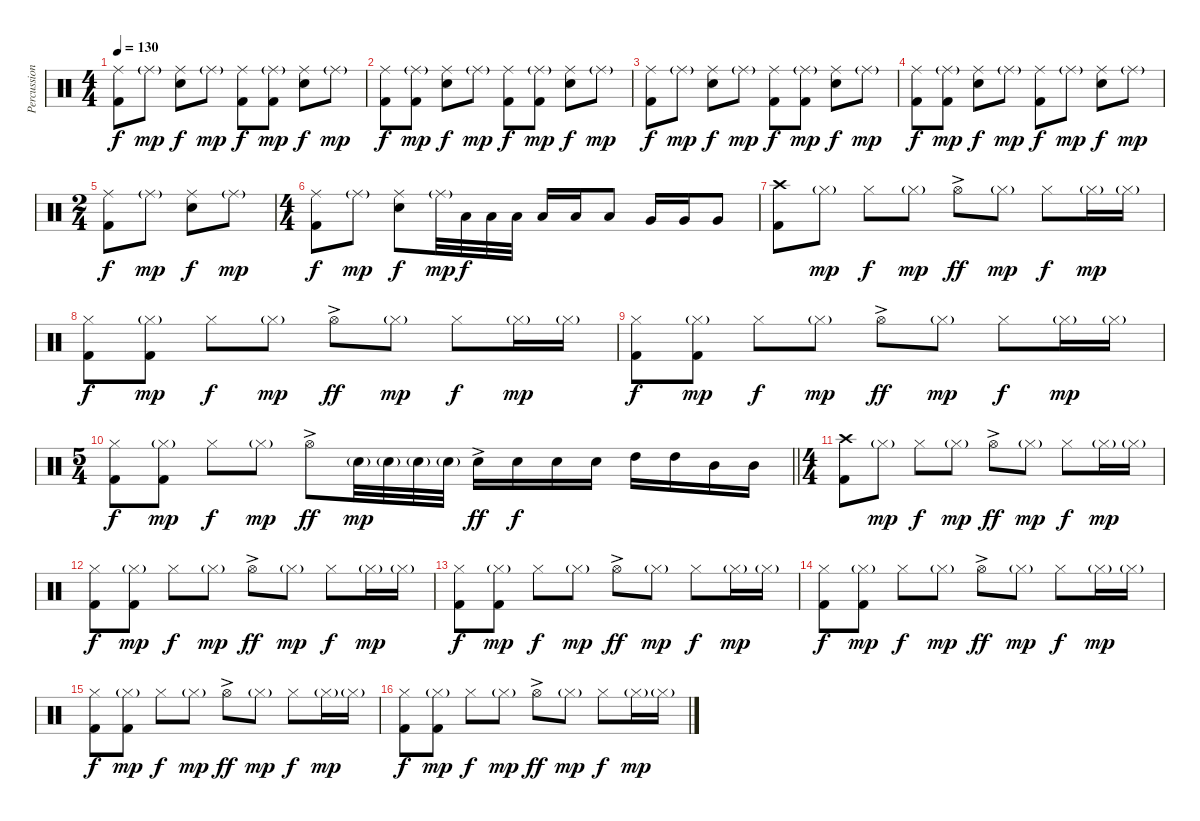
\track ("Percussion" "Percussion") {instrument percussion}
\staff {score}
\articulation defaults
\ts (4 4)
\tempo 130
\clef neutral
\ks c
("Ride (middle)" "Kick (hit) 2").8{dy f} "Ride (middle)"{g}.8{dy mp} ("Ride (middle)" "Electric Snare (hit)").8{dy f} "Ride (middle)"{g}.8{dy mp} ("Ride (middle)" "Kick (hit) 2").8{dy f} ("Ride (middle)"{g} "Kick (hit) 2").8{dy mp} ("Ride (middle)" "Electric Snare (hit)").8{dy f} "Ride (middle)"{g}.8{dy mp} |
("Ride (middle)" "Kick (hit) 2").8{dy f} ("Ride (middle)"{g} "Kick (hit) 2").8{dy mp} ("Ride (middle)" "Electric Snare (hit)").8{dy f} "Ride (middle)"{g}.8{dy mp} ("Ride (middle)" "Kick (hit) 2").8{dy f} ("Ride (middle)"{g} "Kick (hit) 2").8{dy mp} ("Ride (middle)" "Electric Snare (hit)").8{dy f} "Ride (middle)"{g}.8{dy mp} |
("Ride (middle)" "Kick (hit) 2").8{dy f} "Ride (middle)"{g}.8{dy mp} ("Ride (middle)" "Electric Snare (hit)").8{dy f} "Ride (middle)"{g}.8{dy mp} ("Ride (middle)" "Kick (hit) 2").8{dy f} ("Ride (middle)"{g} "Kick (hit) 2").8{dy mp} ("Ride (middle)" "Electric Snare (hit)").8{dy f} "Ride (middle)"{g}.8{dy mp} |
("Ride (middle)" "Kick (hit) 2").8{dy f} ("Ride (middle)"{g} "Kick (hit) 2").8{dy mp} ("Ride (middle)" "Electric Snare (hit)").8{dy f} "Ride (middle)"{g}.8{dy mp} ("Ride (middle)" "Kick (hit) 2").8{dy f} "Ride (middle)"{g}.8{dy mp} ("Ride (middle)" "Electric Snare (hit)").8{dy f} "Ride (middle)"{g}.8{dy mp} |
\ts (2 4)
("Ride (middle)" "Kick (hit) 2").8{dy f} "Ride (middle)"{g}.8{dy mp} ("Ride (middle)" "Electric Snare (hit)").8{dy f} "Ride (middle)"{g}.8{dy mp} |
\ts (4 4)
("Ride (middle)" "Kick (hit) 2").8{dy f} "Ride (middle)"{g}.8{dy mp} ("Ride (middle)" "Electric Snare (hit)").8{dy f} "Ride (middle)"{g}.32{dy mp} "Low Tom (hit)".32{dy f} "Low Tom (hit)".32 "Low Tom (hit)".32 "Low Tom (hit)".16 "Low Tom (hit)".16 "Low Tom (hit)".8 "Very Low Tom (hit)".16 "Very Low Tom (hit)".16 "Very Low Tom (hit)".8 |
("Crash high (hit)" "Kick (hit) 2").8 "Hi-Hat (closed)"{g}.8{dy mp} "Hi-Hat (closed)".8{dy f} "Hi-Hat (closed)"{g}.8{dy mp} "Hi-Hat (open)"{ac}.8{dy ff} "Hi-Hat (closed)"{g}.8{dy mp} "Hi-Hat (closed)".8{dy f} "Hi-Hat (closed)"{g}.16{dy mp} "Hi-Hat (closed)"{g}.16 |
("Hi-Hat (closed)" "Kick (hit) 2").8{dy f} ("Hi-Hat (closed)"{g} "Kick (hit) 2").8{dy mp} "Hi-Hat (closed)".8{dy f} "Hi-Hat (closed)"{g}.8{dy mp} "Hi-Hat (open)"{ac}.8{dy ff} "Hi-Hat (closed)"{g}.8{dy mp} "Hi-Hat (closed)".8{dy f} "Hi-Hat (closed)"{g}.16{dy mp} "Hi-Hat (closed)"{g}.16 |
("Hi-Hat (closed)" "Kick (hit) 2").8{dy f} ("Hi-Hat (closed)"{g} "Kick (hit) 2").8{dy mp} "Hi-Hat (closed)".8{dy f} "Hi-Hat (closed)"{g}.8{dy mp} "Hi-Hat (open)"{ac}.8{dy ff} "Hi-Hat (closed)"{g}.8{dy mp} "Hi-Hat (closed)".8{dy f} "Hi-Hat (closed)"{g}.16{dy mp} "Hi-Hat (closed)"{g}.16 |
\ts (5 4)
\barLineRight lightlight
("Hi-Hat (closed)" "Kick (hit) 2").8{dy f} ("Hi-Hat (closed)"{g} "Kick (hit) 2").8{dy mp} "Hi-Hat (closed)".8{dy f} "Hi-Hat (closed)"{g}.8{dy mp} "Hi-Hat (open)"{ac}.8{dy ff} "Electric Snare (hit)"{g}.32{dy mp} "Electric Snare (hit)"{g}.32 "Electric Snare (hit)"{g}.32 "Electric Snare (hit)"{g}.32 "Electric Snare (hit)"{ac}.16{dy ff} "Electric Snare (hit)".16{dy f} "Electric Snare (hit)".16 "Electric Snare (hit)".16 "High Tom (hit)".16 "High Tom (hit)".16 "Mid Tom (hit)".16 "Mid Tom (hit)".16 |
\ts (4 4)
("Crash high (hit)" "Kick (hit) 2").8 "Hi-Hat (closed)"{g}.8{dy mp} "Hi-Hat (closed)".8{dy f} "Hi-Hat (closed)"{g}.8{dy mp} "Hi-Hat (open)"{ac}.8{dy ff} "Hi-Hat (closed)"{g}.8{dy mp} "Hi-Hat (closed)".8{dy f} "Hi-Hat (closed)"{g}.16{dy mp} "Hi-Hat (closed)"{g}.16 |
("Hi-Hat (closed)" "Kick (hit) 2").8{dy f} ("Hi-Hat (closed)"{g} "Kick (hit) 2").8{dy mp} "Hi-Hat (closed)".8{dy f} "Hi-Hat (closed)"{g}.8{dy mp} "Hi-Hat (open)"{ac}.8{dy ff} "Hi-Hat (closed)"{g}.8{dy mp} "Hi-Hat (closed)".8{dy f} "Hi-Hat (closed)"{g}.16{dy mp} "Hi-Hat (closed)"{g}.16 |
("Hi-Hat (closed)" "Kick (hit) 2").8{dy f} ("Hi-Hat (closed)"{g} "Kick (hit) 2").8{dy mp} "Hi-Hat (closed)".8{dy f} "Hi-Hat (closed)"{g}.8{dy mp} "Hi-Hat (open)"{ac}.8{dy ff} "Hi-Hat (closed)"{g}.8{dy mp} "Hi-Hat (closed)".8{dy f} "Hi-Hat (closed)"{g}.16{dy mp} "Hi-Hat (closed)"{g}.16 |
("Hi-Hat (closed)" "Kick (hit) 2").8{dy f} ("Hi-Hat (closed)"{g} "Kick (hit) 2").8{dy mp} "Hi-Hat (closed)".8{dy f} "Hi-Hat (closed)"{g}.8{dy mp} "Hi-Hat (open)"{ac}.8{dy ff} "Hi-Hat (closed)"{g}.8{dy mp} "Hi-Hat (closed)".8{dy f} "Hi-Hat (closed)"{g}.16{dy mp} "Hi-Hat (closed)"{g}.16 |
("Hi-Hat (closed)" "Kick (hit) 2").8{dy f} ("Hi-Hat (closed)"{g} "Kick (hit) 2").8{dy mp} "Hi-Hat (closed)".8{dy f} "Hi-Hat (closed)"{g}.8{dy mp} "Hi-Hat (open)"{ac}.8{dy ff} "Hi-Hat (closed)"{g}.8{dy mp} "Hi-Hat (closed)".8{dy f} "Hi-Hat (closed)"{g}.16{dy mp} "Hi-Hat (closed)"{g}.16 |
("Hi-Hat (closed)" "Kick (hit) 2").8{dy f} ("Hi-Hat (closed)"{g} "Kick (hit) 2").8{dy mp} "Hi-Hat (closed)".8{dy f} "Hi-Hat (closed)"{g}.8{dy mp} "Hi-Hat (open)"{ac}.8{dy ff} "Hi-Hat (closed)"{g}.8{dy mp} "Hi-Hat (closed)".8{dy f} "Hi-Hat (closed)"{g}.16{dy mp} "Hi-Hat (closed)"{g}.16
